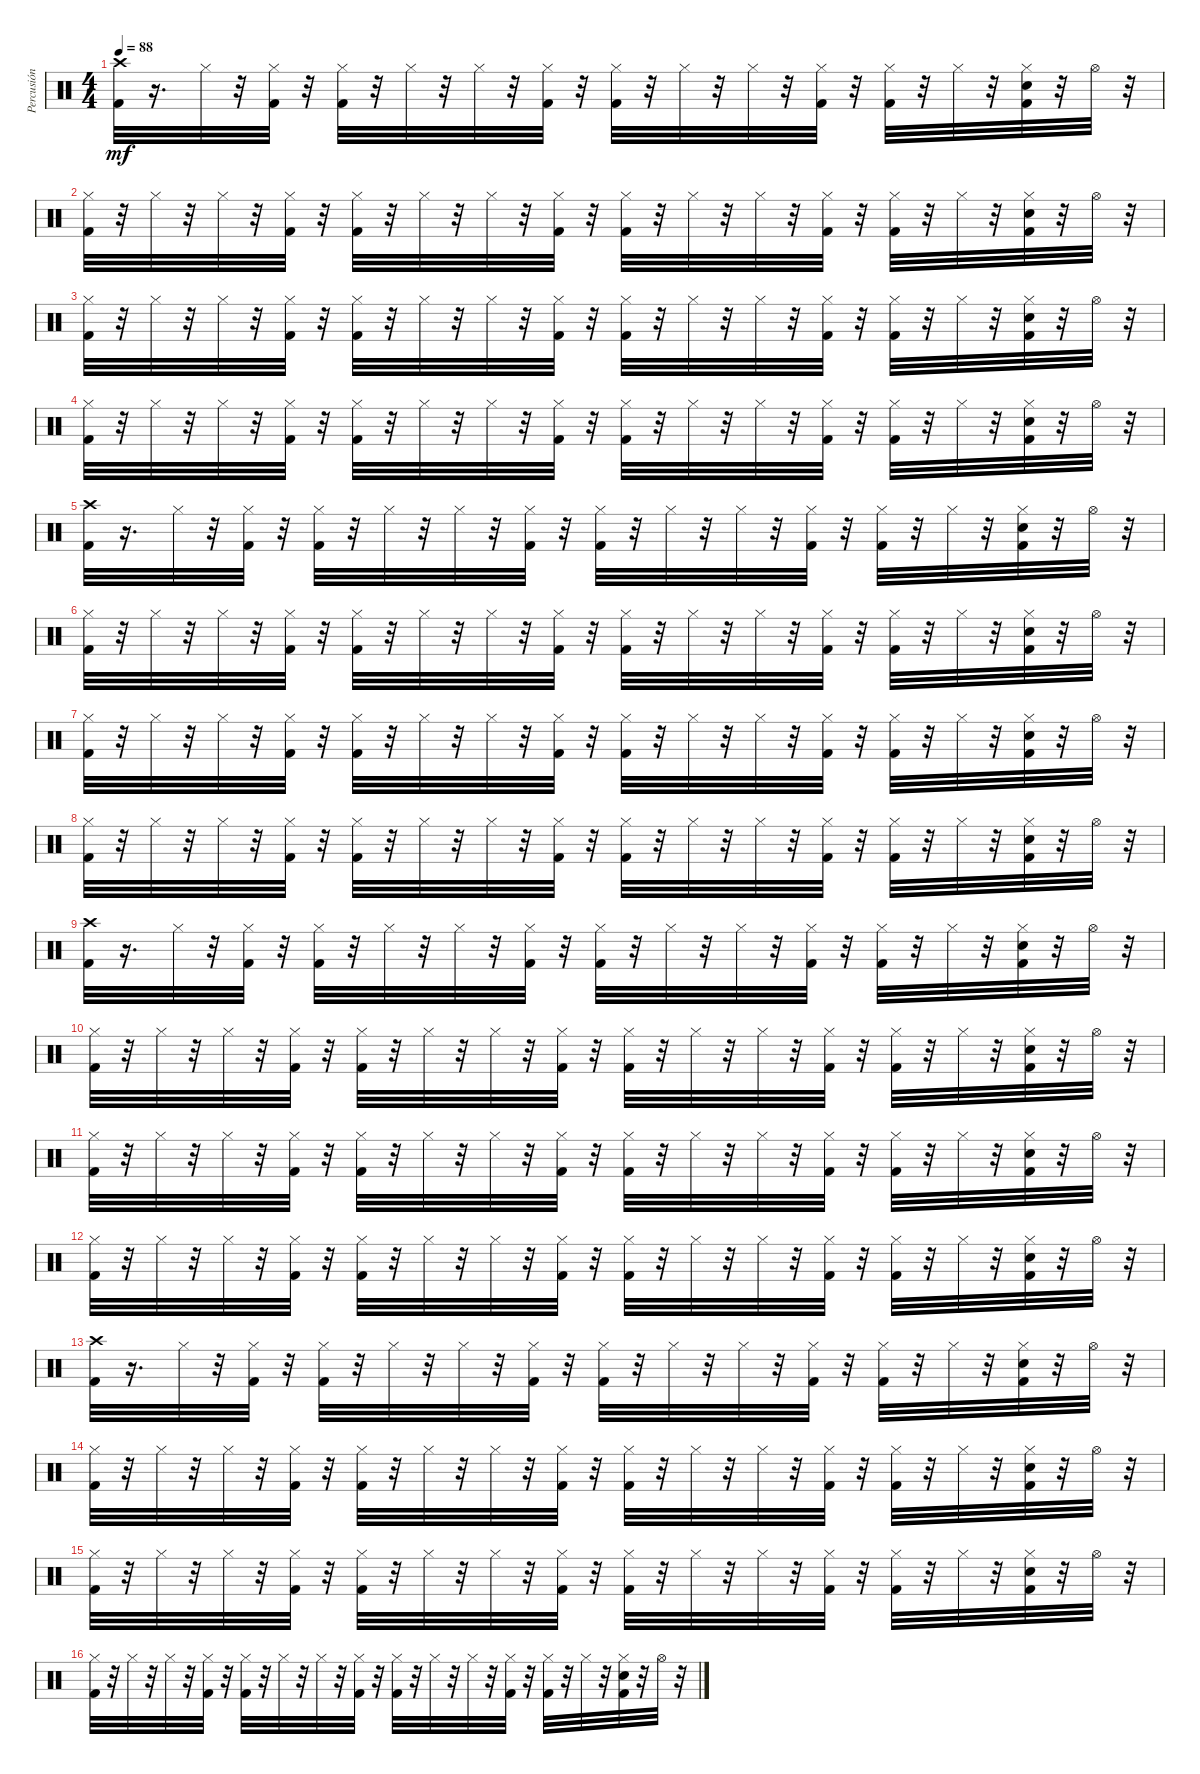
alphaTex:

\track ("Percusión" "Percusión") {instrument percussion}
\staff {score}
\articulation defaults
\ts (4 4)
\tempo 88
\clef neutral
\ks c
("Crash high (hit)" "Kick (hit) 2").32{dy mf} r.16{d} "Hi-Hat (closed)".32 r.32 ("Hi-Hat (closed)" "Kick (hit) 2").32 r.32 ("Hi-Hat (closed)" "Kick (hit) 2").32 r.32 "Hi-Hat (closed)".32 r.32 "Hi-Hat (closed)".32 r.32 ("Hi-Hat (closed)" "Kick (hit) 2").32 r.32 ("Hi-Hat (closed)" "Kick (hit) 2").32 r.32 "Hi-Hat (closed)".32 r.32 "Hi-Hat (closed)".32 r.32 ("Hi-Hat (closed)" "Kick (hit) 2").32 r.32 ("Hi-Hat (closed)" "Kick (hit) 2").32 r.32 "Hi-Hat (closed)".32 r.32 ("Hi-Hat (closed)" "Kick (hit) 2" "Hand Clap (hit)").32 r.32 "Hi-Hat (open)".32 r.32 |
("Hi-Hat (closed)" "Kick (hit) 2").32 r.32 "Hi-Hat (closed)".32 r.32 "Hi-Hat (closed)".32 r.32 ("Hi-Hat (closed)" "Kick (hit) 2").32 r.32 ("Hi-Hat (closed)" "Kick (hit) 2").32 r.32 "Hi-Hat (closed)".32 r.32 "Hi-Hat (closed)".32 r.32 ("Hi-Hat (closed)" "Kick (hit) 2").32 r.32 ("Hi-Hat (closed)" "Kick (hit) 2").32 r.32 "Hi-Hat (closed)".32 r.32 "Hi-Hat (closed)".32 r.32 ("Hi-Hat (closed)" "Kick (hit) 2").32 r.32 ("Hi-Hat (closed)" "Kick (hit) 2").32 r.32 "Hi-Hat (closed)".32 r.32 ("Hi-Hat (closed)" "Kick (hit) 2" "Hand Clap (hit)").32 r.32 "Hi-Hat (open)".32 r.32 |
("Hi-Hat (closed)" "Kick (hit) 2").32 r.32 "Hi-Hat (closed)".32 r.32 "Hi-Hat (closed)".32 r.32 ("Hi-Hat (closed)" "Kick (hit) 2").32 r.32 ("Hi-Hat (closed)" "Kick (hit) 2").32 r.32 "Hi-Hat (closed)".32 r.32 "Hi-Hat (closed)".32 r.32 ("Hi-Hat (closed)" "Kick (hit) 2").32 r.32 ("Hi-Hat (closed)" "Kick (hit) 2").32 r.32 "Hi-Hat (closed)".32 r.32 "Hi-Hat (closed)".32 r.32 ("Hi-Hat (closed)" "Kick (hit) 2").32 r.32 ("Hi-Hat (closed)" "Kick (hit) 2").32 r.32 "Hi-Hat (closed)".32 r.32 ("Hi-Hat (closed)" "Kick (hit) 2" "Hand Clap (hit)").32 r.32 "Hi-Hat (open)".32 r.32 |
("Hi-Hat (closed)" "Kick (hit) 2").32 r.32 "Hi-Hat (closed)".32 r.32 "Hi-Hat (closed)".32 r.32 ("Hi-Hat (closed)" "Kick (hit) 2").32 r.32 ("Hi-Hat (closed)" "Kick (hit) 2").32 r.32 "Hi-Hat (closed)".32 r.32 "Hi-Hat (closed)".32 r.32 ("Hi-Hat (closed)" "Kick (hit) 2").32 r.32 ("Hi-Hat (closed)" "Kick (hit) 2").32 r.32 "Hi-Hat (closed)".32 r.32 "Hi-Hat (closed)".32 r.32 ("Hi-Hat (closed)" "Kick (hit) 2").32 r.32 ("Hi-Hat (closed)" "Kick (hit) 2").32 r.32 "Hi-Hat (closed)".32 r.32 ("Hi-Hat (closed)" "Kick (hit) 2" "Hand Clap (hit)").32 r.32 "Hi-Hat (open)".32 r.32 |
("Crash high (hit)" "Kick (hit) 2").32 r.16{d} "Hi-Hat (closed)".32 r.32 ("Hi-Hat (closed)" "Kick (hit) 2").32 r.32 ("Hi-Hat (closed)" "Kick (hit) 2").32 r.32 "Hi-Hat (closed)".32 r.32 "Hi-Hat (closed)".32 r.32 ("Hi-Hat (closed)" "Kick (hit) 2").32 r.32 ("Hi-Hat (closed)" "Kick (hit) 2").32 r.32 "Hi-Hat (closed)".32 r.32 "Hi-Hat (closed)".32 r.32 ("Hi-Hat (closed)" "Kick (hit) 2").32 r.32 ("Hi-Hat (closed)" "Kick (hit) 2").32 r.32 "Hi-Hat (closed)".32 r.32 ("Hi-Hat (closed)" "Kick (hit) 2" "Hand Clap (hit)").32 r.32 "Hi-Hat (open)".32 r.32 |
("Hi-Hat (closed)" "Kick (hit) 2").32 r.32 "Hi-Hat (closed)".32 r.32 "Hi-Hat (closed)".32 r.32 ("Hi-Hat (closed)" "Kick (hit) 2").32 r.32 ("Hi-Hat (closed)" "Kick (hit) 2").32 r.32 "Hi-Hat (closed)".32 r.32 "Hi-Hat (closed)".32 r.32 ("Hi-Hat (closed)" "Kick (hit) 2").32 r.32 ("Hi-Hat (closed)" "Kick (hit) 2").32 r.32 "Hi-Hat (closed)".32 r.32 "Hi-Hat (closed)".32 r.32 ("Hi-Hat (closed)" "Kick (hit) 2").32 r.32 ("Hi-Hat (closed)" "Kick (hit) 2").32 r.32 "Hi-Hat (closed)".32 r.32 ("Hi-Hat (closed)" "Kick (hit) 2" "Hand Clap (hit)").32 r.32 "Hi-Hat (open)".32 r.32 |
("Hi-Hat (closed)" "Kick (hit) 2").32 r.32 "Hi-Hat (closed)".32 r.32 "Hi-Hat (closed)".32 r.32 ("Hi-Hat (closed)" "Kick (hit) 2").32 r.32 ("Hi-Hat (closed)" "Kick (hit) 2").32 r.32 "Hi-Hat (closed)".32 r.32 "Hi-Hat (closed)".32 r.32 ("Hi-Hat (closed)" "Kick (hit) 2").32 r.32 ("Hi-Hat (closed)" "Kick (hit) 2").32 r.32 "Hi-Hat (closed)".32 r.32 "Hi-Hat (closed)".32 r.32 ("Hi-Hat (closed)" "Kick (hit) 2").32 r.32 ("Hi-Hat (closed)" "Kick (hit) 2").32 r.32 "Hi-Hat (closed)".32 r.32 ("Hi-Hat (closed)" "Kick (hit) 2" "Hand Clap (hit)").32 r.32 "Hi-Hat (open)".32 r.32 |
("Hi-Hat (closed)" "Kick (hit) 2").32 r.32 "Hi-Hat (closed)".32 r.32 "Hi-Hat (closed)".32 r.32 ("Hi-Hat (closed)" "Kick (hit) 2").32 r.32 ("Hi-Hat (closed)" "Kick (hit) 2").32 r.32 "Hi-Hat (closed)".32 r.32 "Hi-Hat (closed)".32 r.32 ("Hi-Hat (closed)" "Kick (hit) 2").32 r.32 ("Hi-Hat (closed)" "Kick (hit) 2").32 r.32 "Hi-Hat (closed)".32 r.32 "Hi-Hat (closed)".32 r.32 ("Hi-Hat (closed)" "Kick (hit) 2").32 r.32 ("Hi-Hat (closed)" "Kick (hit) 2").32 r.32 "Hi-Hat (closed)".32 r.32 ("Hi-Hat (closed)" "Kick (hit) 2" "Hand Clap (hit)").32 r.32 "Hi-Hat (open)".32 r.32 |
("Crash high (hit)" "Kick (hit) 2").32 r.16{d} "Hi-Hat (closed)".32 r.32 ("Hi-Hat (closed)" "Kick (hit) 2").32 r.32 ("Hi-Hat (closed)" "Kick (hit) 2").32 r.32 "Hi-Hat (closed)".32 r.32 "Hi-Hat (closed)".32 r.32 ("Hi-Hat (closed)" "Kick (hit) 2").32 r.32 ("Hi-Hat (closed)" "Kick (hit) 2").32 r.32 "Hi-Hat (closed)".32 r.32 "Hi-Hat (closed)".32 r.32 ("Hi-Hat (closed)" "Kick (hit) 2").32 r.32 ("Hi-Hat (closed)" "Kick (hit) 2").32 r.32 "Hi-Hat (closed)".32 r.32 ("Hi-Hat (closed)" "Kick (hit) 2" "Hand Clap (hit)").32 r.32 "Hi-Hat (open)".32 r.32 |
("Hi-Hat (closed)" "Kick (hit) 2").32 r.32 "Hi-Hat (closed)".32 r.32 "Hi-Hat (closed)".32 r.32 ("Hi-Hat (closed)" "Kick (hit) 2").32 r.32 ("Hi-Hat (closed)" "Kick (hit) 2").32 r.32 "Hi-Hat (closed)".32 r.32 "Hi-Hat (closed)".32 r.32 ("Hi-Hat (closed)" "Kick (hit) 2").32 r.32 ("Hi-Hat (closed)" "Kick (hit) 2").32 r.32 "Hi-Hat (closed)".32 r.32 "Hi-Hat (closed)".32 r.32 ("Hi-Hat (closed)" "Kick (hit) 2").32 r.32 ("Hi-Hat (closed)" "Kick (hit) 2").32 r.32 "Hi-Hat (closed)".32 r.32 ("Hi-Hat (closed)" "Kick (hit) 2" "Hand Clap (hit)").32 r.32 "Hi-Hat (open)".32 r.32 |
("Hi-Hat (closed)" "Kick (hit) 2").32 r.32 "Hi-Hat (closed)".32 r.32 "Hi-Hat (closed)".32 r.32 ("Hi-Hat (closed)" "Kick (hit) 2").32 r.32 ("Hi-Hat (closed)" "Kick (hit) 2").32 r.32 "Hi-Hat (closed)".32 r.32 "Hi-Hat (closed)".32 r.32 ("Hi-Hat (closed)" "Kick (hit) 2").32 r.32 ("Hi-Hat (closed)" "Kick (hit) 2").32 r.32 "Hi-Hat (closed)".32 r.32 "Hi-Hat (closed)".32 r.32 ("Hi-Hat (closed)" "Kick (hit) 2").32 r.32 ("Hi-Hat (closed)" "Kick (hit) 2").32 r.32 "Hi-Hat (closed)".32 r.32 ("Hi-Hat (closed)" "Kick (hit) 2" "Hand Clap (hit)").32 r.32 "Hi-Hat (open)".32 r.32 |
("Hi-Hat (closed)" "Kick (hit) 2").32 r.32 "Hi-Hat (closed)".32 r.32 "Hi-Hat (closed)".32 r.32 ("Hi-Hat (closed)" "Kick (hit) 2").32 r.32 ("Hi-Hat (closed)" "Kick (hit) 2").32 r.32 "Hi-Hat (closed)".32 r.32 "Hi-Hat (closed)".32 r.32 ("Hi-Hat (closed)" "Kick (hit) 2").32 r.32 ("Hi-Hat (closed)" "Kick (hit) 2").32 r.32 "Hi-Hat (closed)".32 r.32 "Hi-Hat (closed)".32 r.32 ("Hi-Hat (closed)" "Kick (hit) 2").32 r.32 ("Hi-Hat (closed)" "Kick (hit) 2").32 r.32 "Hi-Hat (closed)".32 r.32 ("Hi-Hat (closed)" "Kick (hit) 2" "Hand Clap (hit)").32 r.32 "Hi-Hat (open)".32 r.32 |
("Crash high (hit)" "Kick (hit) 2").32 r.16{d} "Hi-Hat (closed)".32 r.32 ("Hi-Hat (closed)" "Kick (hit) 2").32 r.32 ("Hi-Hat (closed)" "Kick (hit) 2").32 r.32 "Hi-Hat (closed)".32 r.32 "Hi-Hat (closed)".32 r.32 ("Hi-Hat (closed)" "Kick (hit) 2").32 r.32 ("Hi-Hat (closed)" "Kick (hit) 2").32 r.32 "Hi-Hat (closed)".32 r.32 "Hi-Hat (closed)".32 r.32 ("Hi-Hat (closed)" "Kick (hit) 2").32 r.32 ("Hi-Hat (closed)" "Kick (hit) 2").32 r.32 "Hi-Hat (closed)".32 r.32 ("Hi-Hat (closed)" "Kick (hit) 2" "Hand Clap (hit)").32 r.32 "Hi-Hat (open)".32 r.32 |
("Hi-Hat (closed)" "Kick (hit) 2").32 r.32 "Hi-Hat (closed)".32 r.32 "Hi-Hat (closed)".32 r.32 ("Hi-Hat (closed)" "Kick (hit) 2").32 r.32 ("Hi-Hat (closed)" "Kick (hit) 2").32 r.32 "Hi-Hat (closed)".32 r.32 "Hi-Hat (closed)".32 r.32 ("Hi-Hat (closed)" "Kick (hit) 2").32 r.32 ("Hi-Hat (closed)" "Kick (hit) 2").32 r.32 "Hi-Hat (closed)".32 r.32 "Hi-Hat (closed)".32 r.32 ("Hi-Hat (closed)" "Kick (hit) 2").32 r.32 ("Hi-Hat (closed)" "Kick (hit) 2").32 r.32 "Hi-Hat (closed)".32 r.32 ("Hi-Hat (closed)" "Kick (hit) 2" "Hand Clap (hit)").32 r.32 "Hi-Hat (open)".32 r.32 |
("Hi-Hat (closed)" "Kick (hit) 2").32 r.32 "Hi-Hat (closed)".32 r.32 "Hi-Hat (closed)".32 r.32 ("Hi-Hat (closed)" "Kick (hit) 2").32 r.32 ("Hi-Hat (closed)" "Kick (hit) 2").32 r.32 "Hi-Hat (closed)".32 r.32 "Hi-Hat (closed)".32 r.32 ("Hi-Hat (closed)" "Kick (hit) 2").32 r.32 ("Hi-Hat (closed)" "Kick (hit) 2").32 r.32 "Hi-Hat (closed)".32 r.32 "Hi-Hat (closed)".32 r.32 ("Hi-Hat (closed)" "Kick (hit) 2").32 r.32 ("Hi-Hat (closed)" "Kick (hit) 2").32 r.32 "Hi-Hat (closed)".32 r.32 ("Hi-Hat (closed)" "Kick (hit) 2" "Hand Clap (hit)").32 r.32 "Hi-Hat (open)".32 r.32 |
("Hi-Hat (closed)" "Kick (hit) 2").32 r.32 "Hi-Hat (closed)".32 r.32 "Hi-Hat (closed)".32 r.32 ("Hi-Hat (closed)" "Kick (hit) 2").32 r.32 ("Hi-Hat (closed)" "Kick (hit) 2").32 r.32 "Hi-Hat (closed)".32 r.32 "Hi-Hat (closed)".32 r.32 ("Hi-Hat (closed)" "Kick (hit) 2").32 r.32 ("Hi-Hat (closed)" "Kick (hit) 2").32 r.32 "Hi-Hat (closed)".32 r.32 "Hi-Hat (closed)".32 r.32 ("Hi-Hat (closed)" "Kick (hit) 2").32 r.32 ("Hi-Hat (closed)" "Kick (hit) 2").32 r.32 "Hi-Hat (closed)".32 r.32 ("Hi-Hat (closed)" "Kick (hit) 2" "Hand Clap (hit)").32 r.32 "Hi-Hat (open)".32 r.32
